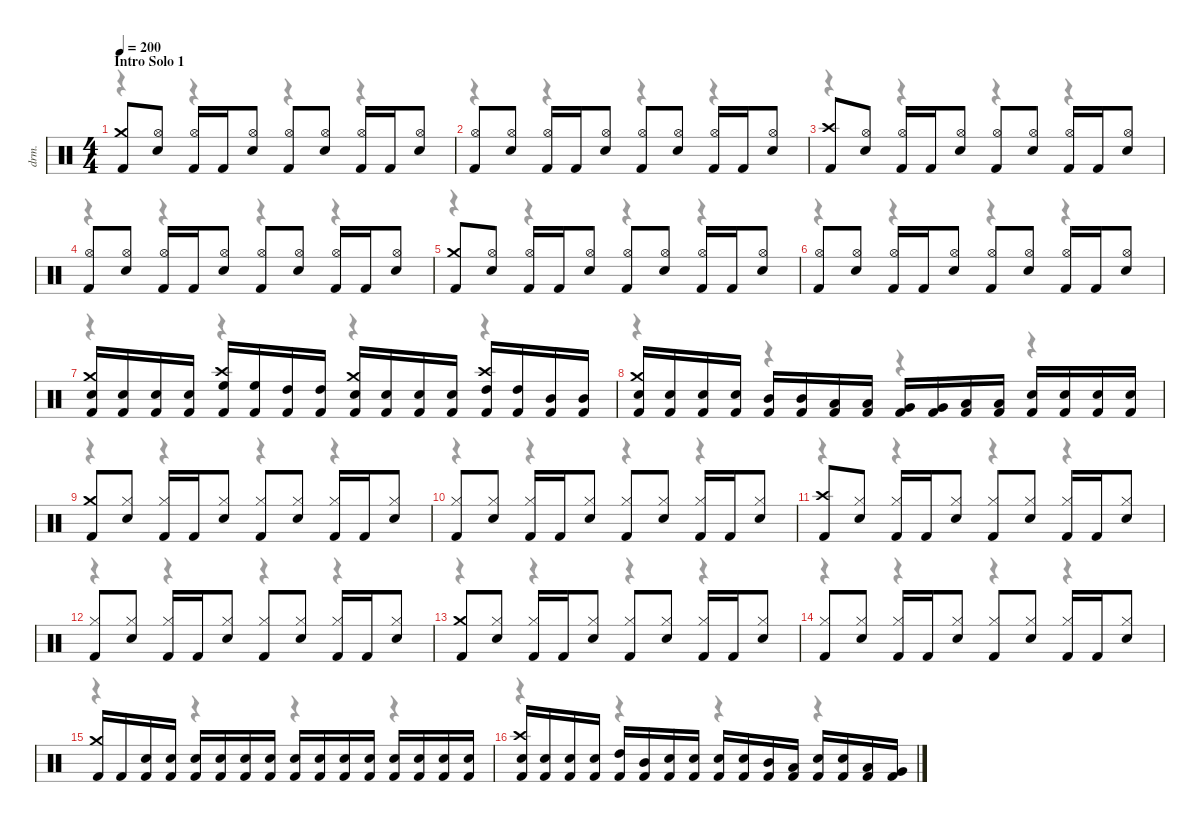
\defaultSystemsLayout 4
\hideDynamics
\bracketExtendMode nobrackets
\otherSystemsTrackNameOrientation horizontal
\track ("David Mackintosh (Drums)" "drm.") {instrument percussion}
\staff {score}
\articulation defaults
\voice
\ts (4 4)
\section ("" "Intro Solo 1")
\tempo 200
\clef neutral
\ks c
("Kick (hit) 2" "Crash medium (hit)").8{dy f} ("Snare (hit) 2" "Hi-Hat (open)").8 ("Kick (hit) 2" "Hi-Hat (open)").16 "Kick (hit) 2".16 ("Snare (hit) 2" "Hi-Hat (open)").8 ("Kick (hit) 2" "Hi-Hat (open)").8 ("Snare (hit) 2" "Hi-Hat (open)").8 ("Kick (hit) 2" "Hi-Hat (open)").16 "Kick (hit) 2".16 ("Snare (hit) 2" "Hi-Hat (open)").8 |
("Kick (hit) 2" "Hi-Hat (open)").8 ("Snare (hit) 2" "Hi-Hat (open)").8 ("Kick (hit) 2" "Hi-Hat (open)").16 "Kick (hit) 2".16 ("Snare (hit) 2" "Hi-Hat (open)").8 ("Kick (hit) 2" "Hi-Hat (open)").8 ("Snare (hit) 2" "Hi-Hat (open)").8 ("Kick (hit) 2" "Hi-Hat (open)").16 "Kick (hit) 2".16 ("Snare (hit) 2" "Hi-Hat (open)").8 |
("Kick (hit) 2" "Crash high (hit)").8 ("Snare (hit) 2" "Hi-Hat (open)").8 ("Kick (hit) 2" "Hi-Hat (open)").16 "Kick (hit) 2".16 ("Snare (hit) 2" "Hi-Hat (open)").8 ("Kick (hit) 2" "Hi-Hat (open)").8 ("Snare (hit) 2" "Hi-Hat (open)").8 ("Kick (hit) 2" "Hi-Hat (open)").16 "Kick (hit) 2".16 ("Snare (hit) 2" "Hi-Hat (open)").8 |
("Kick (hit) 2" "Hi-Hat (open)").8 ("Snare (hit) 2" "Hi-Hat (open)").8 ("Kick (hit) 2" "Hi-Hat (open)").16 "Kick (hit) 2".16 ("Snare (hit) 2" "Hi-Hat (open)").8 ("Kick (hit) 2" "Hi-Hat (open)").8 ("Snare (hit) 2" "Hi-Hat (open)").8 ("Kick (hit) 2" "Hi-Hat (open)").16 "Kick (hit) 2".16 ("Snare (hit) 2" "Hi-Hat (open)").8 |
("Kick (hit) 2" "Crash medium (hit)").8 ("Snare (hit) 2" "Hi-Hat (open)").8 ("Kick (hit) 2" "Hi-Hat (open)").16 "Kick (hit) 2".16 ("Snare (hit) 2" "Hi-Hat (open)").8 ("Kick (hit) 2" "Hi-Hat (open)").8 ("Snare (hit) 2" "Hi-Hat (open)").8 ("Kick (hit) 2" "Hi-Hat (open)").16 "Kick (hit) 2".16 ("Snare (hit) 2" "Hi-Hat (open)").8 |
("Kick (hit) 2" "Hi-Hat (open)").8 ("Snare (hit) 2" "Hi-Hat (open)").8 ("Kick (hit) 2" "Hi-Hat (open)").16 "Kick (hit) 2".16 ("Snare (hit) 2" "Hi-Hat (open)").8 ("Kick (hit) 2" "Hi-Hat (open)").8 ("Snare (hit) 2" "Hi-Hat (open)").8 ("Kick (hit) 2" "Hi-Hat (open)").16 "Kick (hit) 2".16 ("Snare (hit) 2" "Hi-Hat (open)").8 |
("Kick (hit) 2" "Snare (hit) 2" "Crash medium (hit)").16 ("Kick (hit) 2" "Snare (hit) 2").16 ("Kick (hit) 2" "Snare (hit) 2").16 ("Kick (hit) 2" "Snare (hit) 2").16 ("Kick (hit) 2" "High Floor Tom (hit)" "Crash high (hit)").16 ("Kick (hit) 2" "High Floor Tom (hit)").16 ("Kick (hit) 2" "High Tom (hit)").16 ("Kick (hit) 2" "High Tom (hit)").16 ("Kick (hit) 2" "Snare (hit) 2" "Crash medium (hit)").16 ("Kick (hit) 2" "Snare (hit) 2").16 ("Kick (hit) 2" "Snare (hit) 2").16 ("Kick (hit) 2" "Snare (hit) 2").16 ("Kick (hit) 2" "High Tom (hit)" "Crash high (hit)").16 ("Kick (hit) 2" "High Tom (hit)").16 ("Kick (hit) 2" "Mid Tom (hit)").16 ("Kick (hit) 2" "Mid Tom (hit)").16 |
("Kick (hit) 2" "Snare (hit) 2" "Crash medium (hit)").16 ("Kick (hit) 2" "Snare (hit) 2").16 ("Kick (hit) 2" "Snare (hit) 2").16 ("Kick (hit) 2" "Snare (hit) 2").16 ("Kick (hit) 2" "Mid Tom (hit)").16 ("Kick (hit) 2" "Mid Tom (hit)").16 ("Kick (hit) 2" "Low Tom (hit)").16 ("Kick (hit) 2" "Low Tom (hit)").16 ("Kick (hit) 2" "Very Low Tom (hit)").16 ("Kick (hit) 2" "Very Low Tom (hit)").16 ("Kick (hit) 2" "Low Floor Tom (hit)").16 ("Kick (hit) 2" "Low Floor Tom (hit)").16 ("Kick (hit) 2" "Snare (hit) 2").16 ("Kick (hit) 2" "Snare (hit) 2").16 ("Kick (hit) 2" "Snare (hit) 2").16 ("Kick (hit) 2" "Snare (hit) 2").16 |
("Kick (hit) 2" "Crash medium (hit)").8 ("Snare (hit) 2" "Hi-Hat (closed)").8 ("Kick (hit) 2" "Hi-Hat (closed)").16 "Kick (hit) 2".16 ("Snare (hit) 2" "Hi-Hat (closed)").8 ("Kick (hit) 2" "Hi-Hat (closed)").8 ("Snare (hit) 2" "Hi-Hat (closed)").8 ("Kick (hit) 2" "Hi-Hat (closed)").16 "Kick (hit) 2".16 ("Snare (hit) 2" "Hi-Hat (closed)").8 |
("Kick (hit) 2" "Hi-Hat (closed)").8 ("Snare (hit) 2" "Hi-Hat (closed)").8 ("Kick (hit) 2" "Hi-Hat (closed)").16 "Kick (hit) 2".16 ("Snare (hit) 2" "Hi-Hat (closed)").8 ("Kick (hit) 2" "Hi-Hat (closed)").8 ("Snare (hit) 2" "Hi-Hat (closed)").8 ("Kick (hit) 2" "Hi-Hat (closed)").16 "Kick (hit) 2".16 ("Snare (hit) 2" "Hi-Hat (closed)").8 |
("Kick (hit) 2" "Crash high (hit)").8 ("Snare (hit) 2" "Hi-Hat (closed)").8 ("Kick (hit) 2" "Hi-Hat (closed)").16 "Kick (hit) 2".16 ("Snare (hit) 2" "Hi-Hat (closed)").8 ("Kick (hit) 2" "Hi-Hat (closed)").8 ("Snare (hit) 2" "Hi-Hat (closed)").8 ("Kick (hit) 2" "Hi-Hat (closed)").16 "Kick (hit) 2".16 ("Snare (hit) 2" "Hi-Hat (closed)").8 |
("Kick (hit) 2" "Hi-Hat (closed)").8 ("Snare (hit) 2" "Hi-Hat (closed)").8 ("Kick (hit) 2" "Hi-Hat (closed)").16 "Kick (hit) 2".16 ("Snare (hit) 2" "Hi-Hat (closed)").8 ("Kick (hit) 2" "Hi-Hat (closed)").8 ("Snare (hit) 2" "Hi-Hat (closed)").8 ("Kick (hit) 2" "Hi-Hat (closed)").16 "Kick (hit) 2".16 ("Snare (hit) 2" "Hi-Hat (closed)").8 |
("Kick (hit) 2" "Crash medium (hit)").8 ("Snare (hit) 2" "Hi-Hat (closed)").8 ("Kick (hit) 2" "Hi-Hat (closed)").16 "Kick (hit) 2".16 ("Snare (hit) 2" "Hi-Hat (closed)").8 ("Kick (hit) 2" "Hi-Hat (closed)").8 ("Snare (hit) 2" "Hi-Hat (closed)").8 ("Kick (hit) 2" "Hi-Hat (closed)").16 "Kick (hit) 2".16 ("Snare (hit) 2" "Hi-Hat (closed)").8 |
("Kick (hit) 2" "Hi-Hat (closed)").8 ("Snare (hit) 2" "Hi-Hat (closed)").8 ("Kick (hit) 2" "Hi-Hat (closed)").16 "Kick (hit) 2".16 ("Snare (hit) 2" "Hi-Hat (closed)").8 ("Kick (hit) 2" "Hi-Hat (closed)").8 ("Snare (hit) 2" "Hi-Hat (closed)").8 ("Kick (hit) 2" "Hi-Hat (closed)").16 "Kick (hit) 2".16 ("Snare (hit) 2" "Hi-Hat (closed)").8 |
("Kick (hit) 2" "Crash medium (hit)").16 "Kick (hit) 2".16 ("Kick (hit) 2" "Snare (hit) 2").16 ("Kick (hit) 2" "Snare (hit) 2").16 ("Kick (hit) 2" "Snare (hit) 2").16 ("Kick (hit) 2" "Snare (hit) 2").16 ("Kick (hit) 2" "Snare (hit) 2").16 ("Kick (hit) 2" "Snare (hit) 2").16 ("Kick (hit) 2" "Snare (hit) 2").16 ("Kick (hit) 2" "Snare (hit) 2").16 ("Kick (hit) 2" "Snare (hit) 2").16 ("Kick (hit) 2" "Snare (hit) 2").16 ("Kick (hit) 2" "Snare (hit) 2").16 ("Kick (hit) 2" "Snare (hit) 2").16 ("Kick (hit) 2" "Snare (hit) 2").16 ("Kick (hit) 2" "Snare (hit) 2").16 |
("Kick (hit) 2" "Snare (hit) 2" "Crash high (hit)").16 ("Kick (hit) 2" "Snare (hit) 2").16 ("Kick (hit) 2" "Snare (hit) 2").16 ("Kick (hit) 2" "Snare (hit) 2").16 ("Kick (hit) 2" "High Tom (hit)").16 ("Kick (hit) 2" "Mid Tom (hit)").16 ("Kick (hit) 2" "Snare (hit) 2").16 ("Kick (hit) 2" "Snare (hit) 2").16 ("Kick (hit) 2" "Snare (hit) 2").16 ("Kick (hit) 2" "Snare (hit) 2").16 ("Kick (hit) 2" "Mid Tom (hit)").16 ("Kick (hit) 2" "Low Tom (hit)").16 ("Kick (hit) 2" "Snare (hit) 2").16 ("Kick (hit) 2" "Snare (hit) 2").16 ("Kick (hit) 2" "Low Tom (hit)").16 ("Kick (hit) 2" "Very Low Tom (hit)").16
\voice
\clef neutral
\ottava regular
\simile none
\ks c
r.4{dy mf} r.4 r.4 r.4 |
r.4 r.4 r.4 r.4 |
r.4 r.4 r.4 r.4 |
r.4 r.4 r.4 r.4 |
r.4 r.4 r.4 r.4 |
r.4 r.4 r.4 r.4 |
r.4 r.4 r.4 r.4 |
r.4 r.4 r.4 r.4 |
r.4 r.4 r.4 r.4 |
r.4 r.4 r.4 r.4 |
r.4 r.4 r.4 r.4 |
r.4 r.4 r.4 r.4 |
r.4 r.4 r.4 r.4 |
r.4 r.4 r.4 r.4 |
r.4 r.4 r.4 r.4 |
r.4 r.4 r.4 r.4
